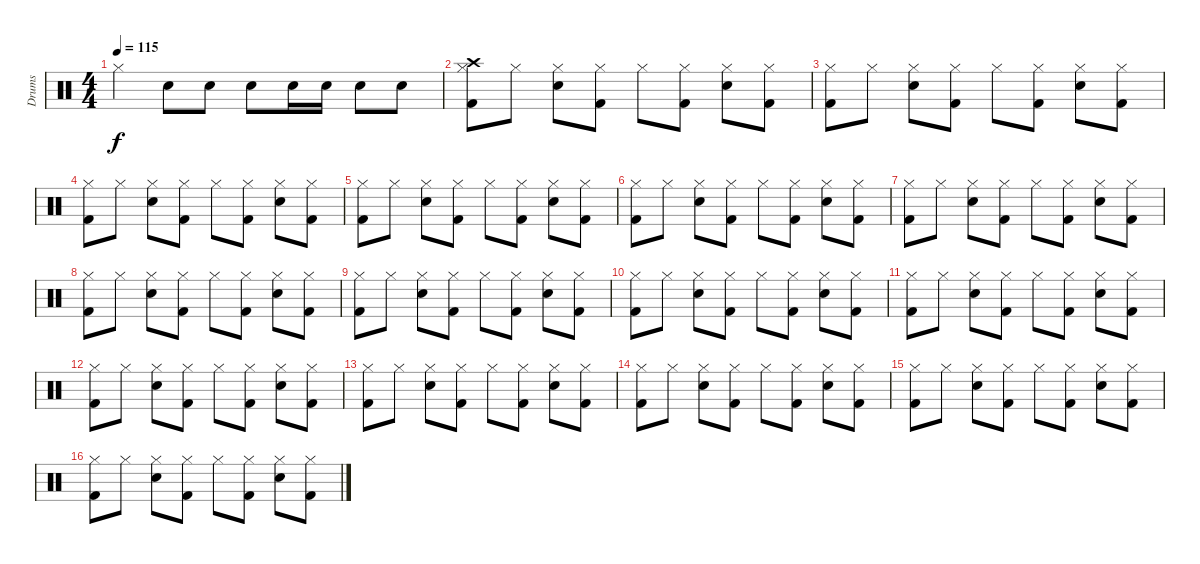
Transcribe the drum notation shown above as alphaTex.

\track ("Drums" "Drums") {instrument percussion}
\staff {score}
\articulation defaults
\ts (4 4)
\tempo 115
\clef neutral
\ks c "Hi-Hat (closed)".4{dy f} "Snare (hit) 2".8 "Snare (hit) 2".8 "Snare (hit) 2".8 "Snare (hit) 2".16 "Snare (hit) 2".16 "Snare (hit) 2".8 "Snare (hit) 2".8
|
("Crash high (hit)" "Hi-Hat (closed)" "Kick (hit) 2").8 "Hi-Hat (closed)".8 ("Hi-Hat (closed)" "Snare (hit) 2").8 ("Hi-Hat (closed)" "Kick (hit) 2").8 "Hi-Hat (closed)".8 ("Hi-Hat (closed)" "Kick (hit) 2").8 ("Hi-Hat (closed)" "Snare (hit) 2").8 ("Hi-Hat (closed)" "Kick (hit) 2").8 |
("Hi-Hat (closed)" "Kick (hit) 2").8 "Hi-Hat (closed)".8 ("Hi-Hat (closed)" "Snare (hit) 2").8 ("Hi-Hat (closed)" "Kick (hit) 2").8 "Hi-Hat (closed)".8 ("Hi-Hat (closed)" "Kick (hit) 2").8 ("Hi-Hat (closed)" "Snare (hit) 2").8 ("Hi-Hat (closed)" "Kick (hit) 2").8 |
("Hi-Hat (closed)" "Kick (hit) 2").8 "Hi-Hat (closed)".8 ("Hi-Hat (closed)" "Snare (hit) 2").8 ("Hi-Hat (closed)" "Kick (hit) 2").8 "Hi-Hat (closed)".8 ("Hi-Hat (closed)" "Kick (hit) 2").8 ("Hi-Hat (closed)" "Snare (hit) 2").8 ("Hi-Hat (closed)" "Kick (hit) 2").8 |
("Hi-Hat (closed)" "Kick (hit) 2").8 "Hi-Hat (closed)".8 ("Hi-Hat (closed)" "Snare (hit) 2").8 ("Hi-Hat (closed)" "Kick (hit) 2").8 "Hi-Hat (closed)".8 ("Hi-Hat (closed)" "Kick (hit) 2").8 ("Hi-Hat (closed)" "Snare (hit) 2").8 ("Hi-Hat (closed)" "Kick (hit) 2").8 |
("Hi-Hat (closed)" "Kick (hit) 2").8 "Hi-Hat (closed)".8 ("Hi-Hat (closed)" "Snare (hit) 2").8 ("Hi-Hat (closed)" "Kick (hit) 2").8 "Hi-Hat (closed)".8 ("Hi-Hat (closed)" "Kick (hit) 2").8 ("Hi-Hat (closed)" "Snare (hit) 2").8 ("Hi-Hat (closed)" "Kick (hit) 2").8 |
("Hi-Hat (closed)" "Kick (hit) 2").8 "Hi-Hat (closed)".8 ("Hi-Hat (closed)" "Snare (hit) 2").8 ("Hi-Hat (closed)" "Kick (hit) 2").8 "Hi-Hat (closed)".8 ("Hi-Hat (closed)" "Kick (hit) 2").8 ("Hi-Hat (closed)" "Snare (hit) 2").8 ("Hi-Hat (closed)" "Kick (hit) 2").8 |
("Hi-Hat (closed)" "Kick (hit) 2").8 "Hi-Hat (closed)".8 ("Hi-Hat (closed)" "Snare (hit) 2").8 ("Hi-Hat (closed)" "Kick (hit) 2").8 "Hi-Hat (closed)".8 ("Hi-Hat (closed)" "Kick (hit) 2").8 ("Hi-Hat (closed)" "Snare (hit) 2").8 ("Hi-Hat (closed)" "Kick (hit) 2").8 |
("Hi-Hat (closed)" "Kick (hit) 2").8 "Hi-Hat (closed)".8 ("Hi-Hat (closed)" "Snare (hit) 2").8 ("Hi-Hat (closed)" "Kick (hit) 2").8 "Hi-Hat (closed)".8 ("Hi-Hat (closed)" "Kick (hit) 2").8 ("Hi-Hat (closed)" "Snare (hit) 2").8 ("Hi-Hat (closed)" "Kick (hit) 2").8 |
("Hi-Hat (closed)" "Kick (hit) 2").8 "Hi-Hat (closed)".8 ("Hi-Hat (closed)" "Snare (hit) 2").8 ("Hi-Hat (closed)" "Kick (hit) 2").8 "Hi-Hat (closed)".8 ("Hi-Hat (closed)" "Kick (hit) 2").8 ("Hi-Hat (closed)" "Snare (hit) 2").8 ("Hi-Hat (closed)" "Kick (hit) 2").8 |
("Hi-Hat (closed)" "Kick (hit) 2").8 "Hi-Hat (closed)".8 ("Hi-Hat (closed)" "Snare (hit) 2").8 ("Hi-Hat (closed)" "Kick (hit) 2").8 "Hi-Hat (closed)".8 ("Hi-Hat (closed)" "Kick (hit) 2").8 ("Hi-Hat (closed)" "Snare (hit) 2").8 ("Hi-Hat (closed)" "Kick (hit) 2").8 |
("Hi-Hat (closed)" "Kick (hit) 2").8 "Hi-Hat (closed)".8 ("Hi-Hat (closed)" "Snare (hit) 2").8 ("Hi-Hat (closed)" "Kick (hit) 2").8 "Hi-Hat (closed)".8 ("Hi-Hat (closed)" "Kick (hit) 2").8 ("Hi-Hat (closed)" "Snare (hit) 2").8 ("Hi-Hat (closed)" "Kick (hit) 2").8 |
("Hi-Hat (closed)" "Kick (hit) 2").8 "Hi-Hat (closed)".8 ("Hi-Hat (closed)" "Snare (hit) 2").8 ("Hi-Hat (closed)" "Kick (hit) 2").8 "Hi-Hat (closed)".8 ("Hi-Hat (closed)" "Kick (hit) 2").8 ("Hi-Hat (closed)" "Snare (hit) 2").8 ("Hi-Hat (closed)" "Kick (hit) 2").8 |
("Hi-Hat (closed)" "Kick (hit) 2").8 "Hi-Hat (closed)".8 ("Hi-Hat (closed)" "Snare (hit) 2").8 ("Hi-Hat (closed)" "Kick (hit) 2").8 "Hi-Hat (closed)".8 ("Hi-Hat (closed)" "Kick (hit) 2").8 ("Hi-Hat (closed)" "Snare (hit) 2").8 ("Hi-Hat (closed)" "Kick (hit) 2").8 |
("Hi-Hat (closed)" "Kick (hit) 2").8 "Hi-Hat (closed)".8 ("Hi-Hat (closed)" "Snare (hit) 2").8 ("Hi-Hat (closed)" "Kick (hit) 2").8 "Hi-Hat (closed)".8 ("Hi-Hat (closed)" "Kick (hit) 2").8 ("Hi-Hat (closed)" "Snare (hit) 2").8 ("Hi-Hat (closed)" "Kick (hit) 2").8 |
("Hi-Hat (closed)" "Kick (hit) 2").8 "Hi-Hat (closed)".8 ("Hi-Hat (closed)" "Snare (hit) 2").8 ("Hi-Hat (closed)" "Kick (hit) 2").8 "Hi-Hat (closed)".8 ("Hi-Hat (closed)" "Kick (hit) 2").8 ("Hi-Hat (closed)" "Snare (hit) 2").8 ("Hi-Hat (closed)" "Kick (hit) 2").8
